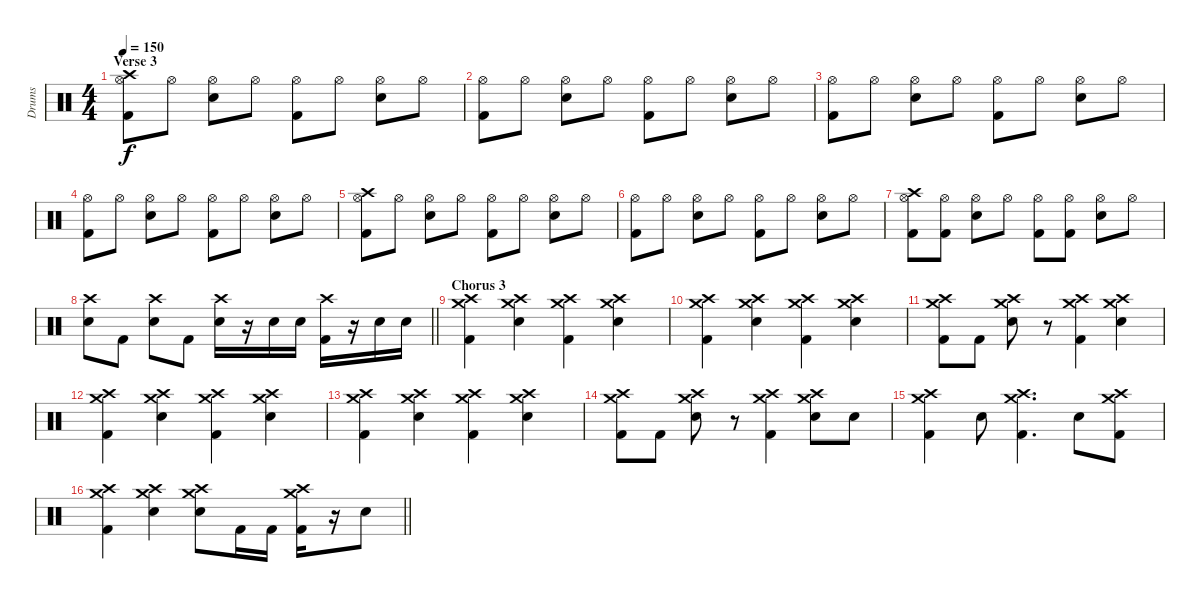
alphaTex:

\track ("Drums" "Drums") {instrument percussion}
\staff {score}
\articulation defaults
\ts (4 4)
\section ("" "Verse 3")
\tempo 150
\clef neutral
\ks c
("Hi-Hat (open)" "Crash high (hit)" "Kick (hit) 2").8{dy f} "Hi-Hat (open)".8 ("Hi-Hat (open)" "Electric Snare (hit)").8 "Hi-Hat (open)".8 ("Hi-Hat (open)" "Kick (hit) 2").8 "Hi-Hat (open)".8 ("Hi-Hat (open)" "Electric Snare (hit)").8 "Hi-Hat (open)".8 |
("Hi-Hat (open)" "Kick (hit) 2").8 "Hi-Hat (open)".8 ("Hi-Hat (open)" "Electric Snare (hit)").8 "Hi-Hat (open)".8 ("Hi-Hat (open)" "Kick (hit) 2").8 "Hi-Hat (open)".8 ("Hi-Hat (open)" "Electric Snare (hit)").8 "Hi-Hat (open)".8 |
("Hi-Hat (open)" "Kick (hit) 2").8 "Hi-Hat (open)".8 ("Hi-Hat (open)" "Electric Snare (hit)").8 "Hi-Hat (open)".8 ("Hi-Hat (open)" "Kick (hit) 2").8 "Hi-Hat (open)".8 ("Hi-Hat (open)" "Electric Snare (hit)").8 "Hi-Hat (open)".8 |
("Hi-Hat (open)" "Kick (hit) 2").8 "Hi-Hat (open)".8 ("Hi-Hat (open)" "Electric Snare (hit)").8 "Hi-Hat (open)".8 ("Hi-Hat (open)" "Kick (hit) 2").8 "Hi-Hat (open)".8 ("Hi-Hat (open)" "Electric Snare (hit)").8 "Hi-Hat (open)".8 |
("Hi-Hat (open)" "Crash high (hit)" "Kick (hit) 2").8 "Hi-Hat (open)".8 ("Hi-Hat (open)" "Electric Snare (hit)").8 "Hi-Hat (open)".8 ("Hi-Hat (open)" "Kick (hit) 2").8 "Hi-Hat (open)".8 ("Hi-Hat (open)" "Electric Snare (hit)").8 "Hi-Hat (open)".8 |
("Hi-Hat (open)" "Kick (hit) 2").8 "Hi-Hat (open)".8 ("Hi-Hat (open)" "Electric Snare (hit)").8 "Hi-Hat (open)".8 ("Hi-Hat (open)" "Kick (hit) 2").8 "Hi-Hat (open)".8 ("Hi-Hat (open)" "Electric Snare (hit)").8 "Hi-Hat (open)".8 |
("Hi-Hat (open)" "Crash high (hit)" "Kick (hit) 2").8 ("Hi-Hat (open)" "Kick (hit) 2").8 ("Hi-Hat (open)" "Electric Snare (hit)").8 "Hi-Hat (open)".8 ("Hi-Hat (open)" "Kick (hit) 2").8 ("Hi-Hat (open)" "Kick (hit) 2").8 ("Hi-Hat (open)" "Electric Snare (hit)").8 "Hi-Hat (open)".8 |
\barLineRight lightlight
("Crash high (hit)" "Electric Snare (hit)").8 "Kick (hit) 2".8 ("Crash high (hit)" "Electric Snare (hit)").8 "Kick (hit) 2".8 ("Crash high (hit)" "Electric Snare (hit)").16 r.16 "Electric Snare (hit)".16 "Electric Snare (hit)".16 ("Crash high (hit)" "Kick (hit) 2").16 r.16 "Electric Snare (hit)".16 "Electric Snare (hit)".16 |
\section ("" "Chorus 3")
("Crash medium (hit)" "Crash high (hit)" "Kick (hit) 2").4 ("Crash medium (hit)" "Crash high (hit)" "Electric Snare (hit)").4 ("Crash medium (hit)" "Crash high (hit)" "Kick (hit) 2").4 ("Crash medium (hit)" "Crash high (hit)" "Electric Snare (hit)").4 |
("Crash medium (hit)" "Crash high (hit)" "Kick (hit) 2").4 ("Crash medium (hit)" "Crash high (hit)" "Electric Snare (hit)").4 ("Crash medium (hit)" "Crash high (hit)" "Kick (hit) 2").4 ("Crash medium (hit)" "Crash high (hit)" "Electric Snare (hit)").4 |
("Crash medium (hit)" "Crash high (hit)" "Kick (hit) 2").8 "Kick (hit) 2".8 ("Crash medium (hit)" "Crash high (hit)" "Electric Snare (hit)").8 r.8 ("Crash medium (hit)" "Crash high (hit)" "Kick (hit) 2").4 ("Crash medium (hit)" "Crash high (hit)" "Electric Snare (hit)").4 |
("Crash medium (hit)" "Crash high (hit)" "Kick (hit) 2").4 ("Crash medium (hit)" "Crash high (hit)" "Electric Snare (hit)").4 ("Crash medium (hit)" "Crash high (hit)" "Kick (hit) 2").4 ("Crash medium (hit)" "Crash high (hit)" "Electric Snare (hit)").4 |
("Crash medium (hit)" "Crash high (hit)" "Kick (hit) 2").4 ("Crash medium (hit)" "Crash high (hit)" "Electric Snare (hit)").4 ("Crash medium (hit)" "Crash high (hit)" "Kick (hit) 2").4 ("Crash medium (hit)" "Crash high (hit)" "Electric Snare (hit)").4 |
("Crash medium (hit)" "Crash high (hit)" "Kick (hit) 2").8 "Kick (hit) 2".8 ("Crash medium (hit)" "Crash high (hit)" "Electric Snare (hit)").8 r.8 ("Crash medium (hit)" "Crash high (hit)" "Kick (hit) 2").4 ("Crash medium (hit)" "Crash high (hit)" "Electric Snare (hit)").8 "Electric Snare (hit)".8 |
("Crash medium (hit)" "Crash high (hit)" "Kick (hit) 2").4 "Electric Snare (hit)".8 ("Crash medium (hit)" "Crash high (hit)" "Kick (hit) 2").4{d} "Electric Snare (hit)".8 ("Crash medium (hit)" "Crash high (hit)" "Kick (hit) 2").8 |
\barLineRight lightlight
("Crash medium (hit)" "Crash high (hit)" "Kick (hit) 2").4 ("Crash medium (hit)" "Crash high (hit)" "Electric Snare (hit)").4 ("Crash medium (hit)" "Crash high (hit)" "Electric Snare (hit)").8 "Kick (hit) 2".16 "Kick (hit) 2".16 ("Crash medium (hit)" "Crash high (hit)" "Kick (hit) 2").16 r.16 "Electric Snare (hit)".8
